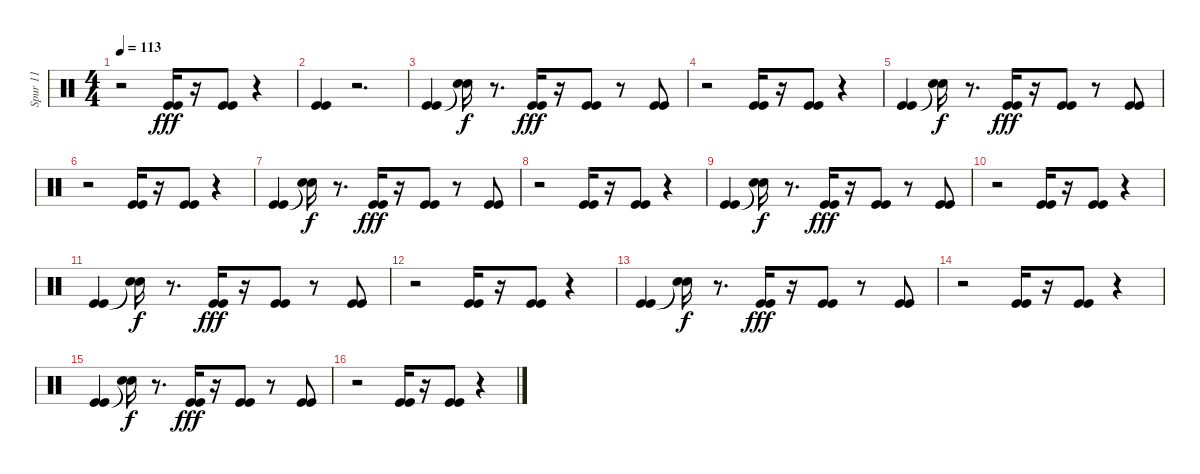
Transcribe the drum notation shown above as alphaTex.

\track ("Spur 11" "Spur 11") {instrument percussion}
\staff {score}
\articulation defaults
\ts (4 4)
\tempo 113
\clef neutral
\ks c
r.2{dy fff} ("Kick (hit)" "Kick (hit)").16 r.16 ("Kick (hit)" "Kick (hit)").8 r.4 |
("Kick (hit)" "Kick (hit)").4 r.2{d} |
("Kick (hit)" "Kick (hit)").4{volume 12} ("Snare (hit)"{t} "Snare (hit)"{t}).16{dy f} r.8{d} ("Kick (hit)" "Kick (hit)").16{dy fff volume 12} r.16 ("Kick (hit)" "Kick (hit)").8 r.8 ("Kick (hit)" "Kick (hit)").8 |
r.2 ("Kick (hit)" "Kick (hit)").16 r.16 ("Kick (hit)" "Kick (hit)").8 r.4 |
("Kick (hit)" "Kick (hit)").4 ("Snare (hit)"{t} "Snare (hit)"{t}).16{dy f} r.8{d} ("Kick (hit)" "Kick (hit)").16{dy fff} r.16 ("Kick (hit)" "Kick (hit)").8 r.8 ("Kick (hit)" "Kick (hit)").8 |
r.2 ("Kick (hit)" "Kick (hit)").16 r.16 ("Kick (hit)" "Kick (hit)").8{volume 13} r.4 |
("Kick (hit)" "Kick (hit)").4 ("Snare (hit)"{t} "Snare (hit)"{t}).16{dy f} r.8{d} ("Kick (hit)" "Kick (hit)").16{dy fff} r.16 ("Kick (hit)" "Kick (hit)").8 r.8 ("Kick (hit)" "Kick (hit)").8 |
r.2 ("Kick (hit)" "Kick (hit)").16 r.16 ("Kick (hit)" "Kick (hit)").8 r.4 |
("Kick (hit)" "Kick (hit)").4 ("Snare (hit)"{t} "Snare (hit)"{t}).16{dy f} r.8{d} ("Kick (hit)" "Kick (hit)").16{dy fff volume 13 balance 8} r.16 ("Kick (hit)" "Kick (hit)").8{volume 13} r.8 ("Kick (hit)" "Kick (hit)").8 |
r.2 ("Kick (hit)" "Kick (hit)").16{volume 13} r.16 ("Kick (hit)" "Kick (hit)").8 r.4 |
("Kick (hit)" "Kick (hit)").4 ("Snare (hit)"{t} "Snare (hit)"{t}).16{dy f} r.8{d} ("Kick (hit)" "Kick (hit)").16{dy fff volume 13} r.16 ("Kick (hit)" "Kick (hit)").8 r.8 ("Kick (hit)" "Kick (hit)").8{volume 12} |
r.2 ("Kick (hit)" "Kick (hit)").16{volume 12} r.16 ("Kick (hit)" "Kick (hit)").8 r.4 |
("Kick (hit)" "Kick (hit)").4{volume 12} ("Snare (hit)"{t} "Snare (hit)"{t}).16{dy f} r.8{d} ("Kick (hit)" "Kick (hit)").16{dy fff} r.16 ("Kick (hit)" "Kick (hit)").8 r.8 ("Kick (hit)" "Kick (hit)").8 |
r.2 ("Kick (hit)" "Kick (hit)").16 r.16 ("Kick (hit)" "Kick (hit)").8 r.4 |
("Kick (hit)" "Kick (hit)").4 ("Snare (hit)"{t} "Snare (hit)"{t}).16{dy f} r.8{d} ("Kick (hit)" "Kick (hit)").16{dy fff} r.16 ("Kick (hit)" "Kick (hit)").8 r.8 ("Kick (hit)" "Kick (hit)").8 |
r.2 ("Kick (hit)" "Kick (hit)").16 r.16 ("Kick (hit)" "Kick (hit)").8 r.4
